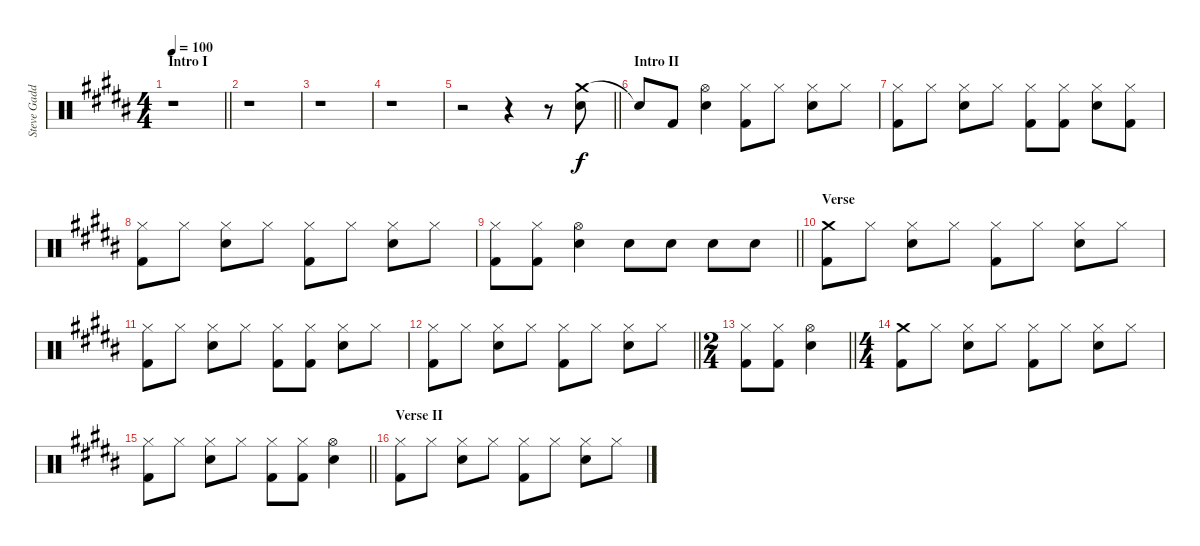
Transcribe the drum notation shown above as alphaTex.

\track ("Steve Gadd Drums" "Steve Gadd") {instrument percussion}
\staff {score}
\articulation defaults
\ts (4 4)
\section ("" "Intro I")
\tempo 100
\clef neutral
\barLineRight lightlight
\ks b
r.1{dy f} |
r.1 |
r.1 |
r.1 |
\barLineRight lightlight
r.2 r.4 r.8 ("Crash medium (hit)" "Snare (hit) 2").8 |
\section ("" "Intro II")
"Snare (hit)"{t}.8 "Kick (hit) 2".8 ("Hi-Hat (open)" "Snare (hit) 2").4 ("Hi-Hat (closed)" "Kick (hit) 2").8 "Hi-Hat (closed)".8 ("Hi-Hat (closed)" "Snare (hit) 2").8 "Hi-Hat (closed)".8 |
("Hi-Hat (closed)" "Kick (hit) 2").8 "Hi-Hat (closed)".8 ("Hi-Hat (closed)" "Snare (hit) 2").8 "Hi-Hat (closed)".8 ("Hi-Hat (closed)" "Kick (hit) 2").8 ("Hi-Hat (closed)" "Kick (hit) 2").8 ("Hi-Hat (closed)" "Snare (hit) 2").8 ("Hi-Hat (closed)" "Kick (hit) 2").8 |
("Hi-Hat (closed)" "Kick (hit) 2").8 "Hi-Hat (closed)".8 ("Hi-Hat (closed)" "Snare (hit) 2").8 "Hi-Hat (closed)".8 ("Hi-Hat (closed)" "Kick (hit) 2").8 "Hi-Hat (closed)".8 ("Hi-Hat (closed)" "Snare (hit) 2").8 "Hi-Hat (closed)".8 |
\barLineRight lightlight
("Hi-Hat (closed)" "Kick (hit) 2").8 ("Hi-Hat (closed)" "Kick (hit) 2").8 ("Hi-Hat (open)" "Snare (hit) 2").4 "Snare (hit) 2".8 "Snare (hit) 2".8 "Snare (hit) 2".8 "Snare (hit) 2".8 |
\section ("" "Verse")
("Crash medium (hit)" "Kick (hit) 2").8 "Hi-Hat (closed)".8 ("Hi-Hat (closed)" "Snare (hit) 2").8 "Hi-Hat (closed)".8 ("Hi-Hat (closed)" "Kick (hit) 2").8 "Hi-Hat (closed)".8 ("Hi-Hat (closed)" "Snare (hit) 2").8 "Hi-Hat (closed)".8 |
("Hi-Hat (closed)" "Kick (hit) 2").8 "Hi-Hat (closed)".8 ("Hi-Hat (closed)" "Snare (hit) 2").8 "Hi-Hat (closed)".8 ("Hi-Hat (closed)" "Kick (hit) 2").8 ("Hi-Hat (closed)" "Kick (hit) 2").8 ("Hi-Hat (closed)" "Snare (hit) 2").8 "Hi-Hat (closed)".8 |
\barLineRight lightlight
("Hi-Hat (closed)" "Kick (hit) 2").8 "Hi-Hat (closed)".8 ("Hi-Hat (closed)" "Snare (hit) 2").8 "Hi-Hat (closed)".8 ("Hi-Hat (closed)" "Kick (hit) 2").8 "Hi-Hat (closed)".8 ("Hi-Hat (closed)" "Snare (hit) 2").8 "Hi-Hat (closed)".8 |
\ts (2 4)
\barLineRight lightlight
("Hi-Hat (closed)" "Kick (hit) 2").8 ("Hi-Hat (closed)" "Kick (hit) 2").8 ("Hi-Hat (open)" "Snare (hit) 2").4 |
\ts (4 4)
("Crash medium (hit)" "Kick (hit) 2").8 "Hi-Hat (closed)".8 ("Hi-Hat (closed)" "Snare (hit) 2").8 "Hi-Hat (closed)".8 ("Hi-Hat (closed)" "Kick (hit) 2").8 "Hi-Hat (closed)".8 ("Hi-Hat (closed)" "Snare (hit) 2").8 "Hi-Hat (closed)".8 |
\barLineRight lightlight
("Hi-Hat (closed)" "Kick (hit) 2").8 "Hi-Hat (closed)".8 ("Hi-Hat (closed)" "Snare (hit) 2").8 "Hi-Hat (closed)".8 ("Hi-Hat (closed)" "Kick (hit) 2").8 ("Hi-Hat (closed)" "Kick (hit) 2").8 ("Hi-Hat (open)" "Snare (hit) 2").4 |
\section ("" "Verse II")
("Hi-Hat (closed)" "Kick (hit) 2").8 "Hi-Hat (closed)".8 ("Hi-Hat (closed)" "Snare (hit) 2").8 "Hi-Hat (closed)".8 ("Hi-Hat (closed)" "Kick (hit) 2").8 "Hi-Hat (closed)".8 ("Hi-Hat (closed)" "Snare (hit) 2").8 "Hi-Hat (closed)".8
